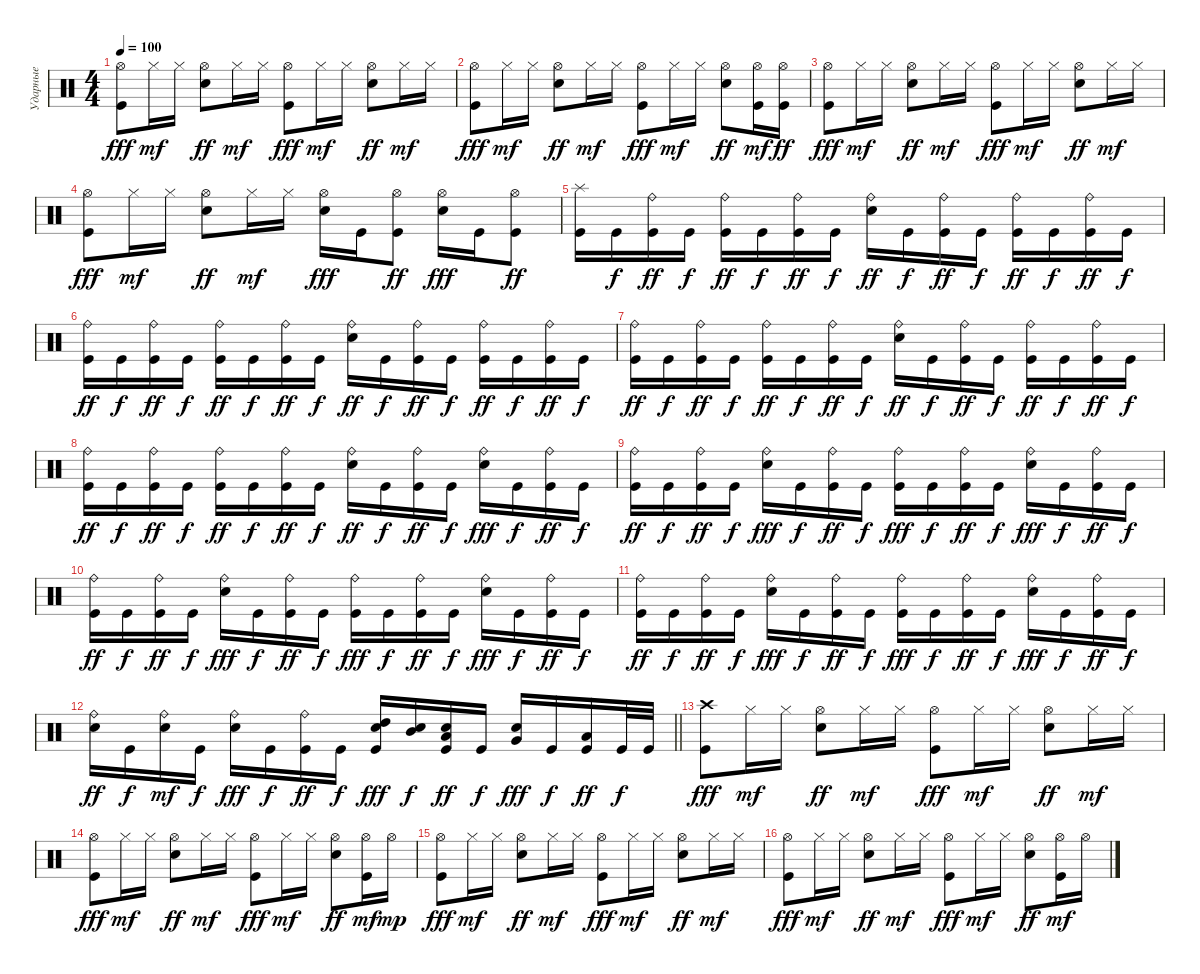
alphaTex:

\track ("Ударные" "Ударные") {instrument percussion}
\staff {score}
\articulation defaults
\ts (4 4)
\tempo 100
\clef neutral
\ks c
("Hi-Hat (open)" "Kick (hit)").8{dy fff} "Hi-Hat (closed)".16{dy mf} "Hi-Hat (closed)".16 ("Hi-Hat (open)" "Electric Snare (hit)").8{dy ff} "Hi-Hat (closed)".16{dy mf} "Hi-Hat (closed)".16 ("Hi-Hat (open)" "Kick (hit)").8{dy fff} "Hi-Hat (closed)".16{dy mf} "Hi-Hat (closed)".16 ("Hi-Hat (open)" "Electric Snare (hit)").8{dy ff} "Hi-Hat (closed)".16{dy mf} "Hi-Hat (closed)".16 |
("Hi-Hat (open)" "Kick (hit)").8{dy fff} "Hi-Hat (closed)".16{dy mf} "Hi-Hat (closed)".16 ("Hi-Hat (open)" "Electric Snare (hit)").8{dy ff} "Hi-Hat (closed)".16{dy mf} "Hi-Hat (closed)".16 ("Hi-Hat (open)" "Kick (hit)").8{dy fff} "Hi-Hat (closed)".16{dy mf} "Hi-Hat (closed)".16 ("Hi-Hat (open)" "Electric Snare (hit)").8{dy ff} ("Hi-Hat (open)" "Kick (hit)").16{dy mf} ("Hi-Hat (open)" "Kick (hit)").16{dy ff} |
("Hi-Hat (open)" "Kick (hit)").8{dy fff} "Hi-Hat (closed)".16{dy mf} "Hi-Hat (closed)".16 ("Hi-Hat (open)" "Electric Snare (hit)").8{dy ff} "Hi-Hat (closed)".16{dy mf} "Hi-Hat (closed)".16 ("Hi-Hat (open)" "Kick (hit)").8{dy fff} "Hi-Hat (closed)".16{dy mf} "Hi-Hat (closed)".16 ("Hi-Hat (open)" "Electric Snare (hit)").8{dy ff} "Hi-Hat (closed)".16{dy mf} "Hi-Hat (closed)".16 |
("Hi-Hat (open)" "Kick (hit)").8{dy fff} "Hi-Hat (closed)".16{dy mf} "Hi-Hat (closed)".16 ("Hi-Hat (open)" "Electric Snare (hit)").8{dy ff} "Hi-Hat (closed)".16{dy mf} "Hi-Hat (closed)".16 ("Hi-Hat (open)" "Electric Snare (hit)").16{dy fff} "Kick (hit)".16 ("Hi-Hat (open)" "Kick (hit)").8{dy ff} ("Hi-Hat (open)" "Electric Snare (hit)").16{dy fff} "Kick (hit)".16 ("Hi-Hat (open)" "Kick (hit)").8{dy ff} |
("Splash (hit)" "Kick (hit)").16 "Kick (hit)".16{dy f} ("Ride (bell)" "Kick (hit)").16{dy ff} "Kick (hit)".16{dy f} ("Ride (bell)" "Kick (hit)").16{dy ff} "Kick (hit)".16{dy f} ("Ride (bell)" "Kick (hit)").16{dy ff} "Kick (hit)".16{dy f} ("Ride (bell)" "Electric Snare (hit)").16{dy ff} "Kick (hit)".16{dy f} ("Ride (bell)" "Kick (hit)").16{dy ff} "Kick (hit)".16{dy f} ("Ride (bell)" "Kick (hit)").16{dy ff} "Kick (hit)".16{dy f} ("Ride (bell)" "Kick (hit)").16{dy ff} "Kick (hit)".16{dy f} |
("Ride (bell)" "Kick (hit)").16{dy ff} "Kick (hit)".16{dy f} ("Ride (bell)" "Kick (hit)").16{dy ff} "Kick (hit)".16{dy f} ("Ride (bell)" "Kick (hit)").16{dy ff} "Kick (hit)".16{dy f} ("Ride (bell)" "Kick (hit)").16{dy ff} "Kick (hit)".16{dy f} ("Ride (bell)" "Electric Snare (hit)").16{dy ff} "Kick (hit)".16{dy f} ("Ride (bell)" "Kick (hit)").16{dy ff} "Kick (hit)".16{dy f} ("Ride (bell)" "Kick (hit)").16{dy ff} "Kick (hit)".16{dy f} ("Ride (bell)" "Kick (hit)").16{dy ff} "Kick (hit)".16{dy f} |
("Ride (bell)" "Kick (hit)").16{dy ff} "Kick (hit)".16{dy f} ("Ride (bell)" "Kick (hit)").16{dy ff} "Kick (hit)".16{dy f} ("Ride (bell)" "Kick (hit)").16{dy ff} "Kick (hit)".16{dy f} ("Ride (bell)" "Kick (hit)").16{dy ff} "Kick (hit)".16{dy f} ("Ride (bell)" "Electric Snare (hit)").16{dy ff} "Kick (hit)".16{dy f} ("Ride (bell)" "Kick (hit)").16{dy ff} "Kick (hit)".16{dy f} ("Ride (bell)" "Kick (hit)").16{dy ff} "Kick (hit)".16{dy f} ("Ride (bell)" "Kick (hit)").16{dy ff} "Kick (hit)".16{dy f} |
("Ride (bell)" "Kick (hit)").16{dy ff} "Kick (hit)".16{dy f} ("Ride (bell)" "Kick (hit)").16{dy ff} "Kick (hit)".16{dy f} ("Ride (bell)" "Kick (hit)").16{dy ff} "Kick (hit)".16{dy f} ("Ride (bell)" "Kick (hit)").16{dy ff} "Kick (hit)".16{dy f} ("Ride (bell)" "Electric Snare (hit)").16{dy ff} "Kick (hit)".16{dy f} ("Ride (bell)" "Kick (hit)").16{dy ff} "Kick (hit)".16{dy f} ("Ride (bell)" "Electric Snare (hit)").16{dy fff} "Kick (hit)".16{dy f} ("Ride (bell)" "Kick (hit)").16{dy ff} "Kick (hit)".16{dy f} |
("Ride (bell)" "Kick (hit)").16{dy ff} "Kick (hit)".16{dy f} ("Ride (bell)" "Kick (hit)").16{dy ff} "Kick (hit)".16{dy f} ("Ride (bell)" "Electric Snare (hit)").16{dy fff} "Kick (hit)".16{dy f} ("Ride (bell)" "Kick (hit)").16{dy ff} "Kick (hit)".16{dy f} ("Ride (bell)" "Kick (hit)").16{dy fff} "Kick (hit)".16{dy f} ("Ride (bell)" "Kick (hit)").16{dy ff} "Kick (hit)".16{dy f} ("Ride (bell)" "Electric Snare (hit)").16{dy fff} "Kick (hit)".16{dy f} ("Ride (bell)" "Kick (hit)").16{dy ff} "Kick (hit)".16{dy f} |
("Ride (bell)" "Kick (hit)").16{dy ff} "Kick (hit)".16{dy f} ("Ride (bell)" "Kick (hit)").16{dy ff} "Kick (hit)".16{dy f} ("Ride (bell)" "Electric Snare (hit)").16{dy fff} "Kick (hit)".16{dy f} ("Ride (bell)" "Kick (hit)").16{dy ff} "Kick (hit)".16{dy f} ("Ride (bell)" "Kick (hit)").16{dy fff} "Kick (hit)".16{dy f} ("Ride (bell)" "Kick (hit)").16{dy ff} "Kick (hit)".16{dy f} ("Ride (bell)" "Electric Snare (hit)").16{dy fff} "Kick (hit)".16{dy f} ("Ride (bell)" "Kick (hit)").16{dy ff} "Kick (hit)".16{dy f} |
("Ride (bell)" "Kick (hit)").16{dy ff} "Kick (hit)".16{dy f} ("Ride (bell)" "Kick (hit)").16{dy ff} "Kick (hit)".16{dy f} ("Ride (bell)" "Electric Snare (hit)").16{dy fff} "Kick (hit)".16{dy f} ("Ride (bell)" "Kick (hit)").16{dy ff} "Kick (hit)".16{dy f} ("Ride (bell)" "Kick (hit)").16{dy fff} "Kick (hit)".16{dy f} ("Ride (bell)" "Kick (hit)").16{dy ff} "Kick (hit)".16{dy f} ("Ride (bell)" "Electric Snare (hit)").16{dy fff} "Kick (hit)".16{dy f} ("Ride (bell)" "Kick (hit)").16{dy ff} "Kick (hit)".16{dy f} |
\barLineRight lightlight
("Ride (bell)" "Electric Snare (hit)").16{dy ff} "Kick (hit)".16{dy f} ("Ride (bell)" "Electric Snare (hit)").16{dy mf} "Kick (hit)".16{dy f} ("Ride (bell)" "Electric Snare (hit)").16{dy fff} "Kick (hit)".16{dy f} ("Ride (bell)" "Kick (hit)").16{dy ff} "Kick (hit)".16{dy f} ("High Tom (hit)" "Electric Snare (hit)" "Kick (hit)").16{dy fff} ("Mid Tom (hit)" "Electric Snare (hit)").16{dy f} ("Low Tom (hit)" "Electric Snare (hit)" "Kick (hit)").16{dy ff} "Kick (hit)".16{dy f} ("Very Low Tom (hit)" "Electric Snare (hit)").16{dy fff} "Kick (hit)".16{dy f} ("Low Floor Tom (hit)" "Kick (hit)").16{dy ff} "Kick (hit)".32{dy f} "Kick (hit)".32 |
("Crash high (hit)" "Kick (hit)").8{dy fff} "Hi-Hat (closed)".16{dy mf} "Hi-Hat (closed)".16 ("Hi-Hat (open)" "Electric Snare (hit)").8{dy ff} "Hi-Hat (closed)".16{dy mf} "Hi-Hat (closed)".16 ("Hi-Hat (open)" "Kick (hit)").8{dy fff} "Hi-Hat (closed)".16{dy mf} "Hi-Hat (closed)".16 ("Hi-Hat (open)" "Electric Snare (hit)").8{dy ff} "Hi-Hat (closed)".16{dy mf} "Hi-Hat (closed)".16 |
("Hi-Hat (open)" "Kick (hit)").8{dy fff} "Hi-Hat (closed)".16{dy mf} "Hi-Hat (closed)".16 ("Hi-Hat (open)" "Electric Snare (hit)").8{dy ff} "Hi-Hat (closed)".16{dy mf} "Hi-Hat (closed)".16 ("Hi-Hat (open)" "Kick (hit)").8{dy fff} "Hi-Hat (closed)".16{dy mf} "Hi-Hat (closed)".16 ("Hi-Hat (open)" "Electric Snare (hit)").8{dy ff} ("Hi-Hat (open)" "Kick (hit)").16{dy mf} "Hi-Hat (open)".16{dy mp} |
("Hi-Hat (open)" "Kick (hit)").8{dy fff} "Hi-Hat (closed)".16{dy mf} "Hi-Hat (closed)".16 ("Hi-Hat (open)" "Electric Snare (hit)").8{dy ff} "Hi-Hat (closed)".16{dy mf} "Hi-Hat (closed)".16 ("Hi-Hat (open)" "Kick (hit)").8{dy fff} "Hi-Hat (closed)".16{dy mf} "Hi-Hat (closed)".16 ("Hi-Hat (open)" "Electric Snare (hit)").8{dy ff} "Hi-Hat (closed)".16{dy mf} "Hi-Hat (closed)".16 |
("Hi-Hat (open)" "Kick (hit)").8{dy fff} "Hi-Hat (closed)".16{dy mf} "Hi-Hat (closed)".16 ("Hi-Hat (open)" "Electric Snare (hit)").8{dy ff} "Hi-Hat (closed)".16{dy mf} "Hi-Hat (closed)".16 ("Hi-Hat (open)" "Kick (hit)").8{dy fff} "Hi-Hat (closed)".16{dy mf} "Hi-Hat (closed)".16 ("Hi-Hat (open)" "Electric Snare (hit)").8{dy ff} ("Hi-Hat (open)" "Kick (hit)").16{dy mf} "Hi-Hat (open)".16
